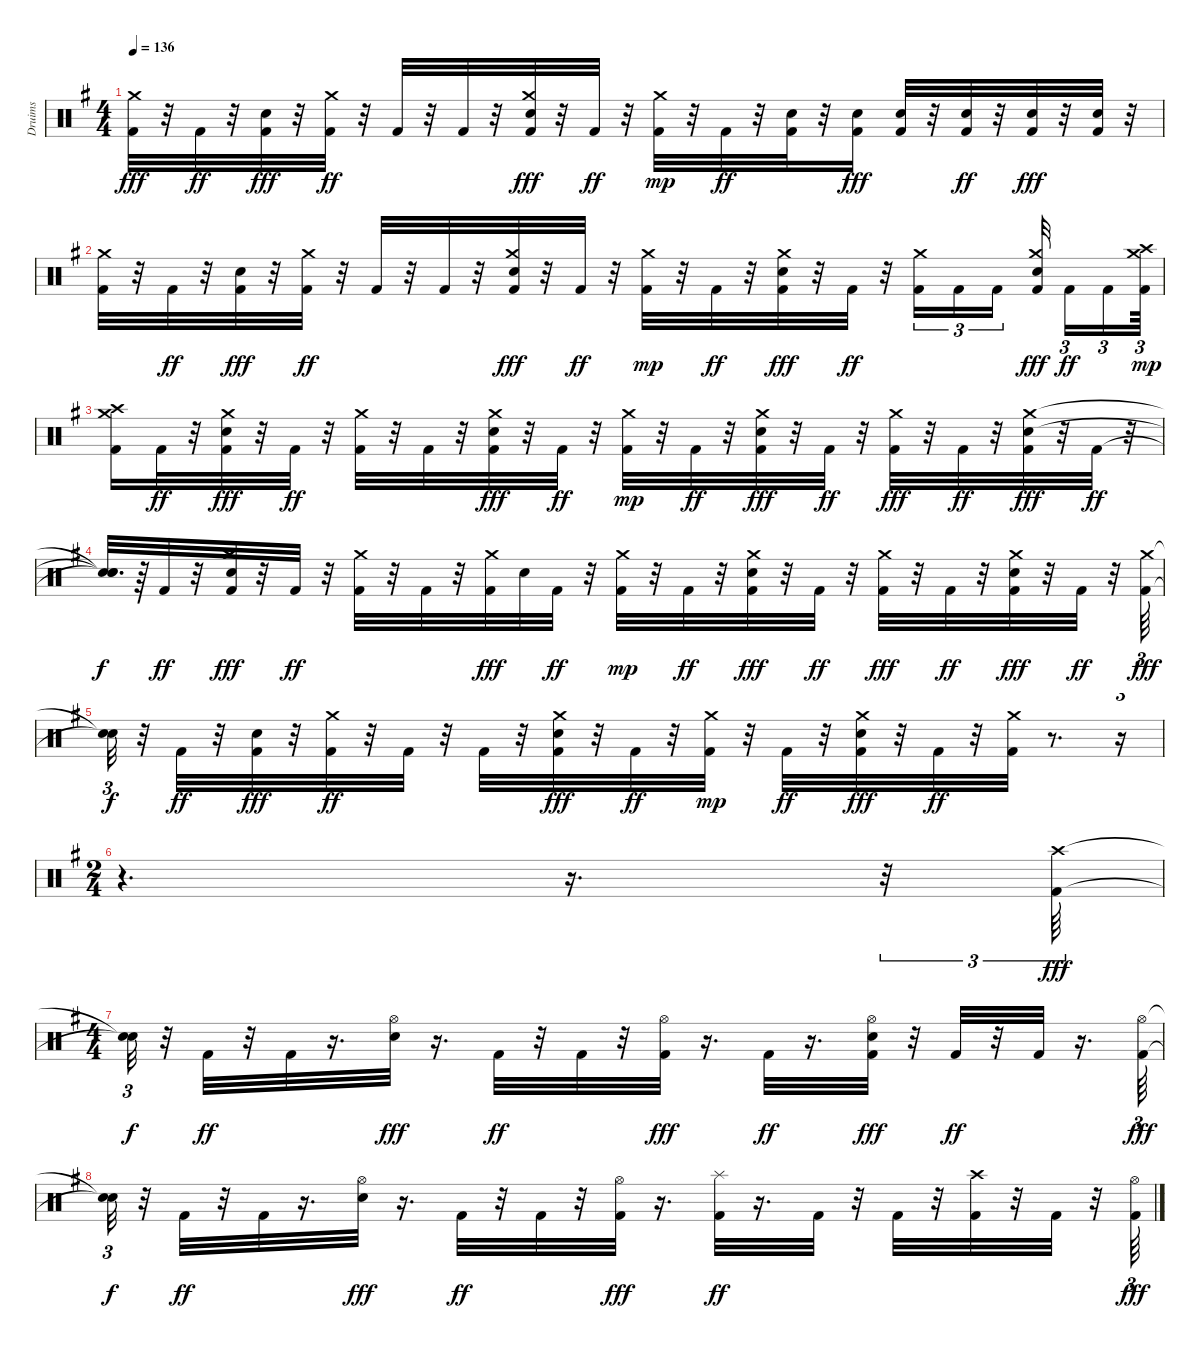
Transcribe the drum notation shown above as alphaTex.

\track ("Druims" "Druims") {instrument percussion}
\staff {score}
\articulation defaults
\ts (4 4)
\tempo 136
\clef neutral
\ks eminor
("Kick (hit) 2" "Crash medium (hit)").32{dy fff} r.32 "Kick (hit) 2".32{dy ff} r.32 ("Kick (hit) 2" "Snare (hit) 2").32{dy fff} r.32 ("Crash medium (hit)" "Kick (hit) 2").32{dy ff} r.32 "Kick (hit) 2".32 r.32 "Kick (hit) 2".32 r.32 ("Kick (hit) 2" "Snare (hit) 2" "Crash medium (hit)").32{dy fff} r.32 "Kick (hit) 2".32{dy ff} r.32 ("Kick (hit) 2" "Crash medium (hit)").32{dy mp} r.32 "Kick (hit) 2".32{dy ff} r.32 ("Snare (hit) 2" "Kick (hit) 2").32 r.32 ("Kick (hit) 2" "Snare (hit) 2").16{dy fff} ("Kick (hit) 2" "Snare (hit) 2").32 r.32 ("Snare (hit) 2" "Kick (hit) 2").32{dy ff} r.32 ("Kick (hit) 2" "Snare (hit) 2").32{dy fff} r.32 ("Kick (hit) 2" "Snare (hit) 2").32 r.32 |
("Kick (hit) 2" "Crash medium (hit)").32 r.32 "Kick (hit) 2".32{dy ff} r.32 ("Kick (hit) 2" "Snare (hit) 2").32{dy fff} r.32 ("Crash medium (hit)" "Kick (hit) 2").32{dy ff} r.32 "Kick (hit) 2".32 r.32 "Kick (hit) 2".32 r.32 ("Kick (hit) 2" "Crash medium (hit)" "Snare (hit) 2").32{dy fff} r.32 "Kick (hit) 2".32{dy ff} r.32 ("Kick (hit) 2" "Crash medium (hit)").32{dy mp} r.32 "Kick (hit) 2".32{dy ff} r.32 ("Kick (hit) 2" "Snare (hit) 2" "Crash medium (hit)").32{dy fff} r.32 "Kick (hit) 2".32{dy ff} r.32 ("Crash medium (hit)" "Kick (hit) 2").16{tu (3 2)} "Kick (hit) 2".16{tu (3 2)} "Kick (hit) 2".16{tu (3 2) beam splitsecondary} ("Kick (hit) 2" "Crash medium (hit)" "Snare (hit) 2").32{dy fff beam splitsecondary} "Kick (hit) 2".16{tu (3 2) dy ff} "Kick (hit) 2".16{tu (3 2)} ("Kick (hit) 2" "Crash high (hit)" "Crash medium (hit)").64{tu (3 2) dy mp} |
("Kick (hit) 2" "Crash high (hit)" "Crash medium (hit)").16 "Kick (hit) 2".32{dy ff} r.32 ("Kick (hit) 2" "Crash medium (hit)" "Snare (hit) 2").32{dy fff} r.32 "Kick (hit) 2".32{dy ff} r.32 ("Crash medium (hit)" "Kick (hit) 2").32 r.32 "Kick (hit) 2".32 r.32 ("Kick (hit) 2" "Crash medium (hit)" "Snare (hit) 2").32{dy fff} r.32 "Kick (hit) 2".32{dy ff} r.32 ("Kick (hit) 2" "Crash medium (hit)").32{dy mp} r.32 "Kick (hit) 2".32{dy ff} r.32 ("Kick (hit) 2" "Crash medium (hit)" "Snare (hit) 2").32{dy fff} r.32 "Kick (hit) 2".32{dy ff} r.32 ("Kick (hit) 2" "Crash medium (hit)").32{dy fff} r.32 "Kick (hit) 2".32{dy ff} r.32 ("Kick (hit) 2" "Crash medium (hit)" "Snare (hit) 2").32{dy fff} r.32 "Kick (hit) 2".32{dy ff} r.32 |
("Snare (hit)"{t} "Snare (hit)"{t} "Snare (hit)"{t}).32{d dy f} r.64 "Kick (hit) 2".32{dy ff} r.32 ("Kick (hit) 2" "Crash medium (hit)" "Snare (hit) 2").32{dy fff} r.32 "Kick (hit) 2".32{dy ff} r.32 ("Crash medium (hit)" "Kick (hit) 2").32 r.32 "Kick (hit) 2".32 r.32 ("Kick (hit) 2" "Crash medium (hit)").32{dy fff} "Snare (hit) 2".32 "Kick (hit) 2".32{dy ff} r.32 ("Kick (hit) 2" "Crash medium (hit)").32{dy mp} r.32 "Kick (hit) 2".32{dy ff} r.32 ("Kick (hit) 2" "Crash medium (hit)" "Snare (hit) 2").32{dy fff} r.32 "Kick (hit) 2".32{dy ff} r.32 ("Kick (hit) 2" "Crash medium (hit)").32{dy fff} r.32 "Kick (hit) 2".32{dy ff} r.32 ("Kick (hit) 2" "Crash medium (hit)" "Snare (hit) 2").32{dy fff} r.32 "Kick (hit) 2".32{dy ff} r.32 ("Kick (hit) 2" "Crash medium (hit)").64{tu (3 2) dy fff} |
("Snare (hit)"{t} "Snare (hit)"{t}).32{tu (3 2) dy f} r.32 "Kick (hit) 2".32{dy ff} r.32 ("Kick (hit) 2" "Snare (hit) 2").32{dy fff} r.32 ("Crash medium (hit)" "Kick (hit) 2").32{dy ff} r.32 "Kick (hit) 2".32 r.32 "Kick (hit) 2".32 r.32 ("Kick (hit) 2" "Crash medium (hit)" "Snare (hit) 2").32{dy fff} r.32 "Kick (hit) 2".32{dy ff} r.32 ("Kick (hit) 2" "Crash medium (hit)").32{dy mp} r.32 "Kick (hit) 2".32{dy ff} r.32 ("Kick (hit) 2" "Crash medium (hit)" "Snare (hit) 2").32{dy fff} r.32 "Kick (hit) 2".32{dy ff} r.32 ("Crash medium (hit)" "Kick (hit) 2").32 r.8{d} r.16{tu (3 2)} |
\ts (2 4)
r.4{d} r.16{d} r.32{tu (3 2)} ("Kick (hit) 2" "Crash high (hit)").64{tu (3 2) dy fff} |
\ts (4 4)
("Snare (hit)"{t} "Snare (hit)"{t}).32{tu (3 2) dy f} r.32 "Kick (hit) 2".32{dy ff} r.32 "Kick (hit) 2".32 r.16{d} ("Hi-Hat (open)" "Snare (hit) 2").32{dy fff} r.16{d} "Kick (hit) 2".32{dy ff} r.32 "Kick (hit) 2".32 r.32 ("Kick (hit) 2" "Hi-Hat (open)").32{dy fff} r.16{d} "Kick (hit) 2".32{dy ff} r.16{d} ("Hi-Hat (open)" "Kick (hit) 2" "Snare (hit) 2").32{dy fff} r.32 "Kick (hit) 2".32{dy ff} r.32 "Kick (hit) 2".32 r.16{d} ("Kick (hit) 2" "Hi-Hat (open)").64{tu (3 2) dy fff} |
("Snare (hit)"{t} "Snare (hit)"{t}).32{tu (3 2) dy f} r.32 "Kick (hit) 2".32{dy ff} r.32 "Kick (hit) 2".32 r.16{d} ("Hi-Hat (open)" "Snare (hit) 2").32{dy fff} r.16{d} "Kick (hit) 2".32{dy ff} r.32 "Kick (hit) 2".32 r.32 ("Kick (hit) 2" "Hi-Hat (open)").32{dy fff} r.16{d} ("Splash (hit)" "Kick (hit) 2").32{dy ff} r.16{d} "Kick (hit) 2".32 r.32 "Kick (hit) 2".32 r.32 ("Crash high (hit)" "Kick (hit) 2").32 r.32 "Kick (hit) 2".32 r.32 ("Kick (hit) 2" "Hi-Hat (open)").64{tu (3 2) dy fff}
